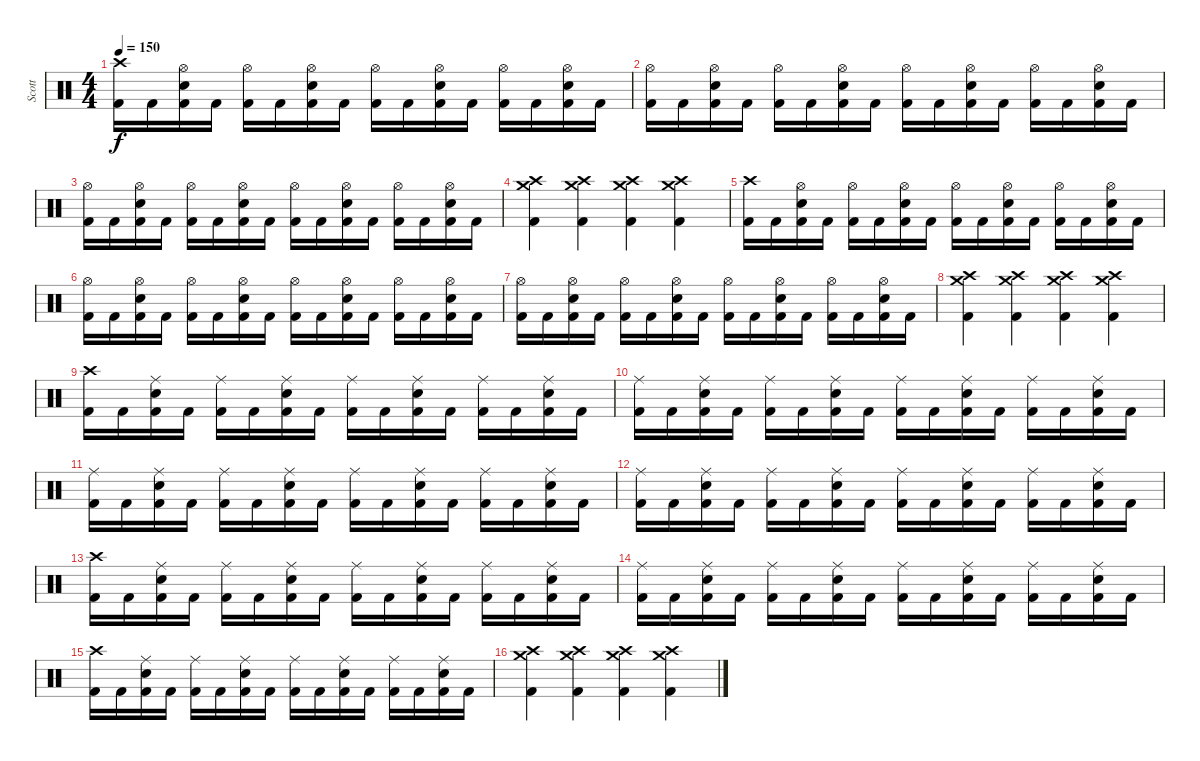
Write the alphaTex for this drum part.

\track ("Scott" "Scott") {instrument percussion}
\staff {score}
\articulation defaults
\ts (4 4)
\tempo 150
\clef neutral
\ks c
("Crash high (hit)" "Kick (hit) 2").16{dy f} "Kick (hit) 2".16 ("Hi-Hat (open)" "Snare (hit) 2" "Kick (hit) 2").16 "Kick (hit) 2".16 ("Hi-Hat (open)" "Kick (hit) 2").16 "Kick (hit) 2".16 ("Hi-Hat (open)" "Snare (hit) 2" "Kick (hit) 2").16 "Kick (hit) 2".16 ("Hi-Hat (open)" "Kick (hit) 2").16 "Kick (hit) 2".16 ("Hi-Hat (open)" "Snare (hit) 2" "Kick (hit) 2").16 "Kick (hit) 2".16 ("Hi-Hat (open)" "Kick (hit) 2").16 "Kick (hit) 2".16 ("Hi-Hat (open)" "Snare (hit) 2" "Kick (hit) 2").16 "Kick (hit) 2".16 |
("Hi-Hat (open)" "Kick (hit) 2").16 "Kick (hit) 2".16 ("Hi-Hat (open)" "Snare (hit) 2" "Kick (hit) 2").16 "Kick (hit) 2".16 ("Hi-Hat (open)" "Kick (hit) 2").16 "Kick (hit) 2".16 ("Hi-Hat (open)" "Snare (hit) 2" "Kick (hit) 2").16 "Kick (hit) 2".16 ("Hi-Hat (open)" "Kick (hit) 2").16 "Kick (hit) 2".16 ("Hi-Hat (open)" "Snare (hit) 2" "Kick (hit) 2").16 "Kick (hit) 2".16 ("Hi-Hat (open)" "Kick (hit) 2").16 "Kick (hit) 2".16 ("Hi-Hat (open)" "Snare (hit) 2" "Kick (hit) 2").16 "Kick (hit) 2".16 |
("Hi-Hat (open)" "Kick (hit) 2").16 "Kick (hit) 2".16 ("Hi-Hat (open)" "Snare (hit) 2" "Kick (hit) 2").16 "Kick (hit) 2".16 ("Hi-Hat (open)" "Kick (hit) 2").16 "Kick (hit) 2".16 ("Hi-Hat (open)" "Snare (hit) 2" "Kick (hit) 2").16 "Kick (hit) 2".16 ("Hi-Hat (open)" "Kick (hit) 2").16 "Kick (hit) 2".16 ("Hi-Hat (open)" "Snare (hit) 2" "Kick (hit) 2").16 "Kick (hit) 2".16 ("Hi-Hat (open)" "Kick (hit) 2").16 "Kick (hit) 2".16 ("Hi-Hat (open)" "Snare (hit) 2" "Kick (hit) 2").16 "Kick (hit) 2".16 |
("Crash high (hit)" "Crash medium (hit)" "Kick (hit) 2").4 ("Crash medium (hit)" "Crash high (hit)" "Kick (hit) 2").4 ("Crash high (hit)" "Crash medium (hit)" "Kick (hit) 2").4 ("Crash medium (hit)" "Crash high (hit)" "Kick (hit) 2").4 |
("Crash high (hit)" "Kick (hit) 2").16 "Kick (hit) 2".16 ("Hi-Hat (open)" "Snare (hit) 2" "Kick (hit) 2").16 "Kick (hit) 2".16 ("Hi-Hat (open)" "Kick (hit) 2").16 "Kick (hit) 2".16 ("Hi-Hat (open)" "Snare (hit) 2" "Kick (hit) 2").16 "Kick (hit) 2".16 ("Hi-Hat (open)" "Kick (hit) 2").16 "Kick (hit) 2".16 ("Hi-Hat (open)" "Snare (hit) 2" "Kick (hit) 2").16 "Kick (hit) 2".16 ("Hi-Hat (open)" "Kick (hit) 2").16 "Kick (hit) 2".16 ("Hi-Hat (open)" "Snare (hit) 2" "Kick (hit) 2").16 "Kick (hit) 2".16 |
("Hi-Hat (open)" "Kick (hit) 2").16 "Kick (hit) 2".16 ("Hi-Hat (open)" "Snare (hit) 2" "Kick (hit) 2").16 "Kick (hit) 2".16 ("Hi-Hat (open)" "Kick (hit) 2").16 "Kick (hit) 2".16 ("Hi-Hat (open)" "Snare (hit) 2" "Kick (hit) 2").16 "Kick (hit) 2".16 ("Hi-Hat (open)" "Kick (hit) 2").16 "Kick (hit) 2".16 ("Hi-Hat (open)" "Snare (hit) 2" "Kick (hit) 2").16 "Kick (hit) 2".16 ("Hi-Hat (open)" "Kick (hit) 2").16 "Kick (hit) 2".16 ("Hi-Hat (open)" "Snare (hit) 2" "Kick (hit) 2").16 "Kick (hit) 2".16 |
("Hi-Hat (open)" "Kick (hit) 2").16 "Kick (hit) 2".16 ("Hi-Hat (open)" "Snare (hit) 2" "Kick (hit) 2").16 "Kick (hit) 2".16 ("Hi-Hat (open)" "Kick (hit) 2").16 "Kick (hit) 2".16 ("Hi-Hat (open)" "Snare (hit) 2" "Kick (hit) 2").16 "Kick (hit) 2".16 ("Hi-Hat (open)" "Kick (hit) 2").16 "Kick (hit) 2".16 ("Hi-Hat (open)" "Snare (hit) 2" "Kick (hit) 2").16 "Kick (hit) 2".16 ("Hi-Hat (open)" "Kick (hit) 2").16 "Kick (hit) 2".16 ("Hi-Hat (open)" "Snare (hit) 2" "Kick (hit) 2").16 "Kick (hit) 2".16 |
("Crash high (hit)" "Crash medium (hit)" "Kick (hit) 2").4 ("Crash medium (hit)" "Crash high (hit)" "Kick (hit) 2").4 ("Crash high (hit)" "Crash medium (hit)" "Kick (hit) 2").4 ("Crash medium (hit)" "Crash high (hit)" "Kick (hit) 2").4 |
("Crash high (hit)" "Kick (hit) 2").16 "Kick (hit) 2".16 ("Ride (middle)" "Snare (hit) 2" "Kick (hit) 2").16 "Kick (hit) 2".16 ("Ride (middle)" "Kick (hit) 2").16 "Kick (hit) 2".16 ("Ride (middle)" "Snare (hit) 2" "Kick (hit) 2").16 "Kick (hit) 2".16 ("Ride (middle)" "Kick (hit) 2").16 "Kick (hit) 2".16 ("Ride (middle)" "Snare (hit) 2" "Kick (hit) 2").16 "Kick (hit) 2".16 ("Ride (middle)" "Kick (hit) 2").16 "Kick (hit) 2".16 ("Ride (middle)" "Snare (hit) 2" "Kick (hit) 2").16 "Kick (hit) 2".16 |
("Ride (middle)" "Kick (hit) 2").16 "Kick (hit) 2".16 ("Ride (middle)" "Snare (hit) 2" "Kick (hit) 2").16 "Kick (hit) 2".16 ("Ride (middle)" "Kick (hit) 2").16 "Kick (hit) 2".16 ("Ride (middle)" "Snare (hit) 2" "Kick (hit) 2").16 "Kick (hit) 2".16 ("Ride (middle)" "Kick (hit) 2").16 "Kick (hit) 2".16 ("Ride (middle)" "Snare (hit) 2" "Kick (hit) 2").16 "Kick (hit) 2".16 ("Ride (middle)" "Kick (hit) 2").16 "Kick (hit) 2".16 ("Ride (middle)" "Snare (hit) 2" "Kick (hit) 2").16 "Kick (hit) 2".16 |
("Ride (middle)" "Kick (hit) 2").16 "Kick (hit) 2".16 ("Ride (middle)" "Snare (hit) 2" "Kick (hit) 2").16 "Kick (hit) 2".16 ("Ride (middle)" "Kick (hit) 2").16 "Kick (hit) 2".16 ("Ride (middle)" "Snare (hit) 2" "Kick (hit) 2").16 "Kick (hit) 2".16 ("Ride (middle)" "Kick (hit) 2").16 "Kick (hit) 2".16 ("Ride (middle)" "Snare (hit) 2" "Kick (hit) 2").16 "Kick (hit) 2".16 ("Ride (middle)" "Kick (hit) 2").16 "Kick (hit) 2".16 ("Ride (middle)" "Snare (hit) 2" "Kick (hit) 2").16 "Kick (hit) 2".16 |
("Ride (middle)" "Kick (hit) 2").16 "Kick (hit) 2".16 ("Ride (middle)" "Snare (hit) 2" "Kick (hit) 2").16 "Kick (hit) 2".16 ("Ride (middle)" "Kick (hit) 2").16 "Kick (hit) 2".16 ("Ride (middle)" "Snare (hit) 2" "Kick (hit) 2").16 "Kick (hit) 2".16 ("Ride (middle)" "Kick (hit) 2").16 "Kick (hit) 2".16 ("Ride (middle)" "Snare (hit) 2" "Kick (hit) 2").16 "Kick (hit) 2".16 ("Ride (middle)" "Kick (hit) 2").16 "Kick (hit) 2".16 ("Ride (middle)" "Snare (hit) 2" "Kick (hit) 2").16 "Kick (hit) 2".16 |
("Crash high (hit)" "Kick (hit) 2").16 "Kick (hit) 2".16 ("Ride (middle)" "Snare (hit) 2" "Kick (hit) 2").16 "Kick (hit) 2".16 ("Ride (middle)" "Kick (hit) 2").16 "Kick (hit) 2".16 ("Ride (middle)" "Snare (hit) 2" "Kick (hit) 2").16 "Kick (hit) 2".16 ("Ride (middle)" "Kick (hit) 2").16 "Kick (hit) 2".16 ("Ride (middle)" "Snare (hit) 2" "Kick (hit) 2").16 "Kick (hit) 2".16 ("Ride (middle)" "Kick (hit) 2").16 "Kick (hit) 2".16 ("Ride (middle)" "Snare (hit) 2" "Kick (hit) 2").16 "Kick (hit) 2".16 |
("Ride (middle)" "Kick (hit) 2").16 "Kick (hit) 2".16 ("Ride (middle)" "Snare (hit) 2" "Kick (hit) 2").16 "Kick (hit) 2".16 ("Ride (middle)" "Kick (hit) 2").16 "Kick (hit) 2".16 ("Ride (middle)" "Snare (hit) 2" "Kick (hit) 2").16 "Kick (hit) 2".16 ("Ride (middle)" "Kick (hit) 2").16 "Kick (hit) 2".16 ("Ride (middle)" "Snare (hit) 2" "Kick (hit) 2").16 "Kick (hit) 2".16 ("Ride (middle)" "Kick (hit) 2").16 "Kick (hit) 2".16 ("Ride (middle)" "Snare (hit) 2" "Kick (hit) 2").16 "Kick (hit) 2".16 |
("Crash high (hit)" "Kick (hit) 2").16 "Kick (hit) 2".16 ("Ride (middle)" "Snare (hit) 2" "Kick (hit) 2").16 "Kick (hit) 2".16 ("Ride (middle)" "Kick (hit) 2").16 "Kick (hit) 2".16 ("Ride (middle)" "Snare (hit) 2" "Kick (hit) 2").16 "Kick (hit) 2".16 ("Ride (middle)" "Kick (hit) 2").16 "Kick (hit) 2".16 ("Ride (middle)" "Snare (hit) 2" "Kick (hit) 2").16 "Kick (hit) 2".16 ("Ride (middle)" "Kick (hit) 2").16 "Kick (hit) 2".16 ("Ride (middle)" "Snare (hit) 2" "Kick (hit) 2").16 "Kick (hit) 2".16 |
("Crash high (hit)" "Crash medium (hit)" "Kick (hit) 2").4 ("Crash high (hit)" "Crash medium (hit)" "Kick (hit) 2").4 ("Crash medium (hit)" "Crash high (hit)" "Kick (hit) 2").4 ("Crash high (hit)" "Crash medium (hit)" "Kick (hit) 2").4
